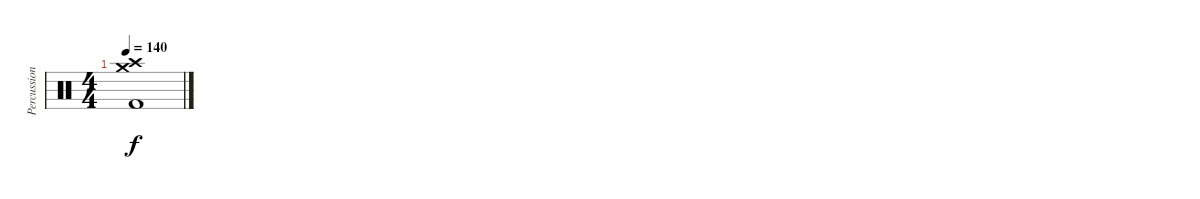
\track ("Percussion" "Percussion") {instrument percussion}
\staff {score}
\articulation defaults
\ts (4 4)
\tempo 140
\clef neutral
\ks c
("Crash high (hit)" "Crash medium (hit)" "Kick (hit) 2").1{dy f}
